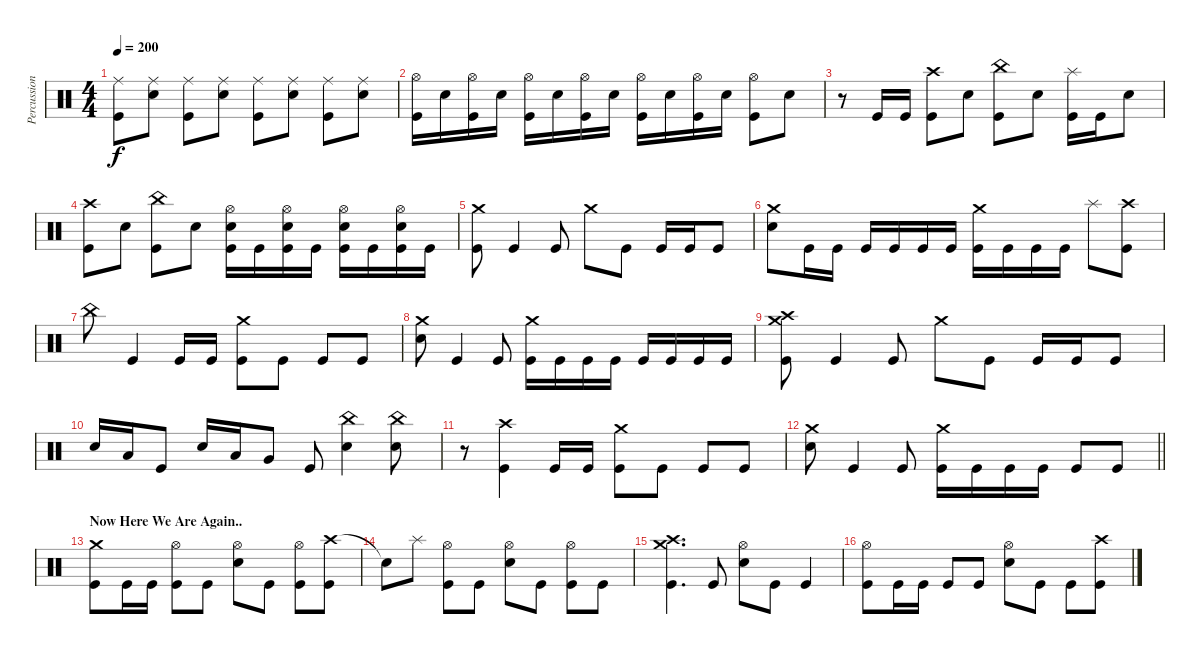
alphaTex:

\track ("Percussion" "Percussion") {instrument percussion}
\staff {score}
\articulation defaults
\ts (4 4)
\tempo 200
\clef neutral
\ks c
("Ride (middle)" "Kick (hit)").8{dy f} ("Ride (middle)" "Snare (hit) 2").8 ("Ride (middle)" "Kick (hit)").8 ("Ride (middle)" "Snare (hit) 2").8 ("Ride (middle)" "Kick (hit)").8 ("Ride (middle)" "Snare (hit) 2").8 ("Ride (middle)" "Kick (hit)").8 ("Ride (middle)" "Snare (hit) 2").8 |
("Hi-Hat (open)" "Kick (hit)").16 "Snare (hit) 2".16 ("Hi-Hat (open)" "Kick (hit)").16 "Snare (hit) 2".16 ("Hi-Hat (open)" "Kick (hit)").16 "Snare (hit) 2".16 ("Hi-Hat (open)" "Kick (hit)").16 "Snare (hit) 2".16 ("Hi-Hat (open)" "Kick (hit)").16 "Snare (hit) 2".16 ("Hi-Hat (open)" "Kick (hit)").16 "Snare (hit) 2".16 ("Hi-Hat (open)" "Kick (hit)").8 "Snare (hit) 2".8 |
r.8 "Kick (hit)".16 "Kick (hit)".16 ("Crash high (hit)" "Kick (hit)").8 "Snare (hit) 2".8 ("China (hit)" "Kick (hit)").8 "Snare (hit) 2".8 ("Splash (hit)" "Kick (hit)").16 "Kick (hit)".16 "Snare (hit) 2".8 |
("Crash high (hit)" "Kick (hit)").8 "Snare (hit) 2".8 ("China (hit)" "Kick (hit)").8 "Snare (hit) 2".8 ("Hi-Hat (open)" "Snare (hit) 2" "Kick (hit)").16 "Kick (hit)".16 ("Hi-Hat (open)" "Snare (hit) 2" "Kick (hit)").16 "Kick (hit)".16 ("Hi-Hat (open)" "Snare (hit) 2" "Kick (hit)").16 "Kick (hit)".16 ("Hi-Hat (open)" "Snare (hit) 2" "Kick (hit)").16 "Kick (hit)".16 |
("Crash medium (hit)" "Kick (hit)").8 "Kick (hit)".4 "Kick (hit)".8 "Crash medium (hit)".8 "Kick (hit)".8 "Kick (hit)".16 "Kick (hit)".16 "Kick (hit)".8 |
("Crash medium (hit)" "Snare (hit) 2").8 "Kick (hit)".16 "Kick (hit)".16 "Kick (hit)".16 "Kick (hit)".16 "Kick (hit)".16 "Kick (hit)".16 ("Crash medium (hit)" "Kick (hit)").16 "Kick (hit)".16 "Kick (hit)".16 "Kick (hit)".16 "Splash (hit)".8 ("Crash high (hit)" "Kick (hit)").8 |
"China (hit)".8 "Kick (hit)".4 "Kick (hit)".16 "Kick (hit)".16 ("Crash medium (hit)" "Kick (hit)").8 "Kick (hit)".8 "Kick (hit)".8 "Kick (hit)".8 |
("Crash medium (hit)" "Snare (hit) 2").8 "Kick (hit)".4 "Kick (hit)".8 ("Crash medium (hit)" "Kick (hit)").16 "Kick (hit)".16 "Kick (hit)".16 "Kick (hit)".16 "Kick (hit)".16 "Kick (hit)".16 "Kick (hit)".16 "Kick (hit)".16 |
("Crash medium (hit)" "Crash high (hit)" "Kick (hit)").8 "Kick (hit)".4 "Kick (hit)".8 "Crash medium (hit)".8 "Kick (hit)".8 "Kick (hit)".16 "Kick (hit)".16 "Kick (hit)".8 |
"Snare (hit) 2".16 "Low Tom (hit)".16 "Kick (hit)".8 "Snare (hit) 2".16 "Low Tom (hit)".16 "Very Low Tom (hit)".8 "Kick (hit)".8 ("China (hit)" "Snare (hit) 2").4 ("China (hit)" "Snare (hit) 2").8 |
r.8 ("Crash high (hit)" "Kick (hit)").4 "Kick (hit)".16 "Kick (hit)".16 ("Crash medium (hit)" "Kick (hit)").8 "Kick (hit)".8 "Kick (hit)".8 "Kick (hit)".8 |
\barLineRight lightlight
("Crash medium (hit)" "Snare (hit) 2").8 "Kick (hit)".4 "Kick (hit)".8 ("Crash medium (hit)" "Kick (hit)").16 "Kick (hit)".16 "Kick (hit)".16 "Kick (hit)".16 "Kick (hit)".8 "Kick (hit)".8 |
\section ("" "Now Here We Are Again..")
("Crash medium (hit)" "Kick (hit)").8 "Kick (hit)".16 "Kick (hit)".16 ("Hi-Hat (open)" "Kick (hit)").8 "Kick (hit)".8 ("Hi-Hat (open)" "Snare (hit) 2").8 "Kick (hit)".8 ("Hi-Hat (open)" "Kick (hit)").8 ("Crash high (hit)" "Kick (hit)").8 |
"Snare (hit)"{t}.8 "Splash (hit)".8 ("Hi-Hat (open)" "Kick (hit)").8 "Kick (hit)".8 ("Hi-Hat (open)" "Snare (hit) 2").8 "Kick (hit)".8 ("Hi-Hat (open)" "Kick (hit)").8 "Kick (hit)".8 |
("Crash medium (hit)" "Crash high (hit)" "Kick (hit)").4{d} "Kick (hit)".8 ("Hi-Hat (open)" "Snare (hit) 2").8 "Kick (hit)".8 "Kick (hit)".4 |
("Hi-Hat (open)" "Kick (hit)").8 "Kick (hit)".16 "Kick (hit)".16 "Kick (hit)".8 "Kick (hit)".8 ("Hi-Hat (open)" "Snare (hit) 2").8 "Kick (hit)".8 "Kick (hit)".8 ("Crash high (hit)" "Kick (hit)").8
